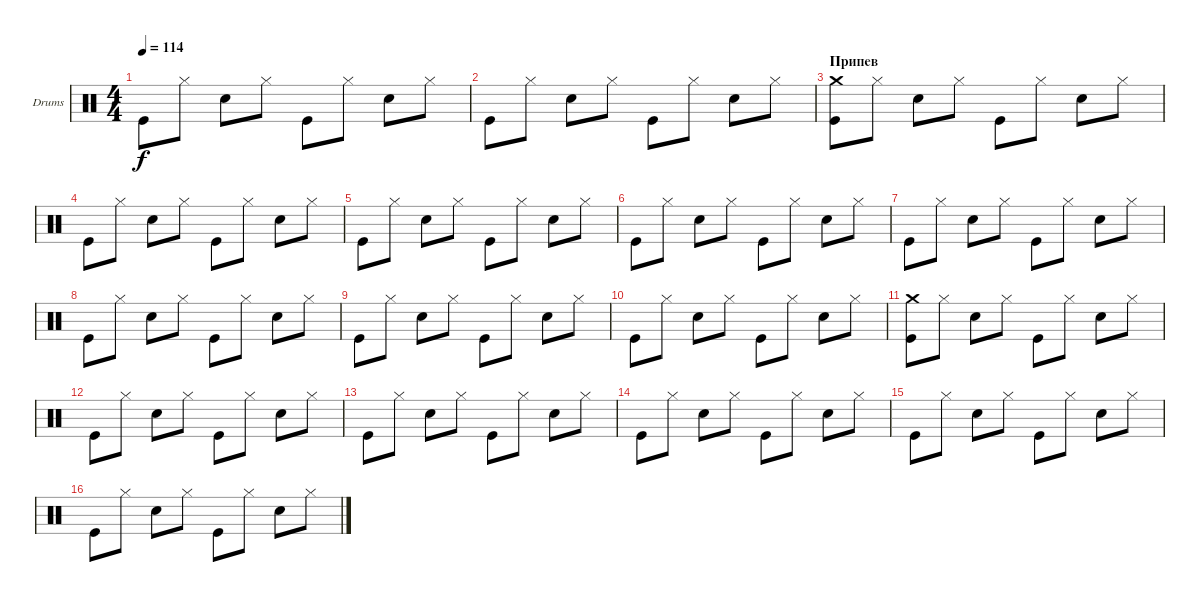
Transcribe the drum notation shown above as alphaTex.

\defaultSystemsLayout 4
\bracketExtendMode groupsimilarinstruments
\firstSystemTrackNameOrientation horizontal
\otherSystemsTrackNameOrientation horizontal
\track ("Е. Кулаков" "Drums") {instrument percussion}
\staff {score}
\articulation defaults
\ts (4 4)
\tempo 114
\clef neutral
\ks c "Kick (hit)".8{dy f} "Hi-Hat (closed)".8 "Snare (hit) 2".8 "Hi-Hat (closed)".8 "Kick (hit)".8 "Hi-Hat (closed)".8 "Snare (hit) 2".8 "Hi-Hat (closed)".8
|
"Kick (hit)".8 "Hi-Hat (closed)".8 "Snare (hit) 2".8 "Hi-Hat (closed)".8 "Kick (hit)".8 "Hi-Hat (closed)".8 "Snare (hit) 2".8 "Hi-Hat (closed)".8 |
\section ("" "Припев")
("Kick (hit)" "Crash medium (hit)").8 "Hi-Hat (closed)".8 "Snare (hit) 2".8 "Hi-Hat (closed)".8 "Kick (hit)".8 "Hi-Hat (closed)".8 "Snare (hit) 2".8 "Hi-Hat (closed)".8 |
"Kick (hit)".8 "Hi-Hat (closed)".8 "Snare (hit) 2".8 "Hi-Hat (closed)".8 "Kick (hit)".8 "Hi-Hat (closed)".8 "Snare (hit) 2".8 "Hi-Hat (closed)".8 |
"Kick (hit)".8 "Hi-Hat (closed)".8 "Snare (hit) 2".8 "Hi-Hat (closed)".8 "Kick (hit)".8 "Hi-Hat (closed)".8 "Snare (hit) 2".8 "Hi-Hat (closed)".8 |
"Kick (hit)".8 "Hi-Hat (closed)".8 "Snare (hit) 2".8 "Hi-Hat (closed)".8 "Kick (hit)".8 "Hi-Hat (closed)".8 "Snare (hit) 2".8 "Hi-Hat (closed)".8 |
"Kick (hit)".8 "Hi-Hat (closed)".8 "Snare (hit) 2".8 "Hi-Hat (closed)".8 "Kick (hit)".8 "Hi-Hat (closed)".8 "Snare (hit) 2".8 "Hi-Hat (closed)".8 |
"Kick (hit)".8 "Hi-Hat (closed)".8 "Snare (hit) 2".8 "Hi-Hat (closed)".8 "Kick (hit)".8 "Hi-Hat (closed)".8 "Snare (hit) 2".8 "Hi-Hat (closed)".8 |
"Kick (hit)".8 "Hi-Hat (closed)".8 "Snare (hit) 2".8 "Hi-Hat (closed)".8 "Kick (hit)".8 "Hi-Hat (closed)".8 "Snare (hit) 2".8 "Hi-Hat (closed)".8 |
"Kick (hit)".8 "Hi-Hat (closed)".8 "Snare (hit) 2".8 "Hi-Hat (closed)".8 "Kick (hit)".8 "Hi-Hat (closed)".8 "Snare (hit) 2".8 "Hi-Hat (closed)".8 |
("Kick (hit)" "Crash medium (hit)").8 "Hi-Hat (closed)".8 "Snare (hit) 2".8 "Hi-Hat (closed)".8 "Kick (hit)".8 "Hi-Hat (closed)".8 "Snare (hit) 2".8 "Hi-Hat (closed)".8 |
"Kick (hit)".8 "Hi-Hat (closed)".8 "Snare (hit) 2".8 "Hi-Hat (closed)".8 "Kick (hit)".8 "Hi-Hat (closed)".8 "Snare (hit) 2".8 "Hi-Hat (closed)".8 |
"Kick (hit)".8 "Hi-Hat (closed)".8 "Snare (hit) 2".8 "Hi-Hat (closed)".8 "Kick (hit)".8 "Hi-Hat (closed)".8 "Snare (hit) 2".8 "Hi-Hat (closed)".8 |
"Kick (hit)".8 "Hi-Hat (closed)".8 "Snare (hit) 2".8 "Hi-Hat (closed)".8 "Kick (hit)".8 "Hi-Hat (closed)".8 "Snare (hit) 2".8 "Hi-Hat (closed)".8 |
"Kick (hit)".8 "Hi-Hat (closed)".8 "Snare (hit) 2".8 "Hi-Hat (closed)".8 "Kick (hit)".8 "Hi-Hat (closed)".8 "Snare (hit) 2".8 "Hi-Hat (closed)".8 |
"Kick (hit)".8 "Hi-Hat (closed)".8 "Snare (hit) 2".8 "Hi-Hat (closed)".8 "Kick (hit)".8 "Hi-Hat (closed)".8 "Snare (hit) 2".8 "Hi-Hat (closed)".8
